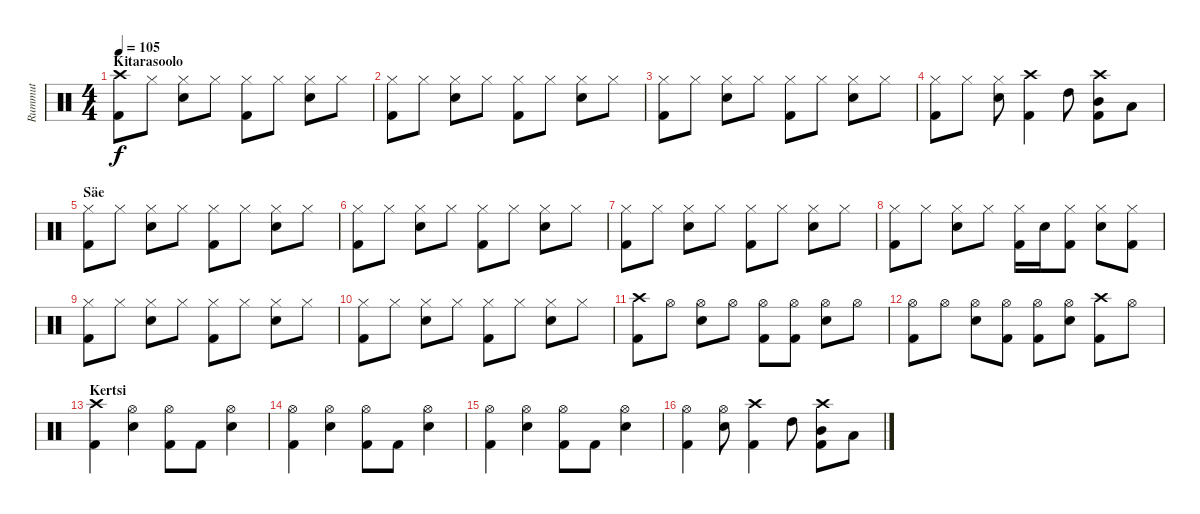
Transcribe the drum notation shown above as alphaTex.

\track ("Rummut" "Rummut") {instrument percussion}
\staff {score}
\articulation defaults
\ts (4 4)
\section ("" "Kitarasoolo")
\tempo 105
\clef neutral
\ks c
("Crash high (hit)" "Kick (hit) 2").8{dy f} "Hi-Hat (closed)".8 ("Hi-Hat (closed)" "Snare (hit) 2").8 "Hi-Hat (closed)".8 ("Hi-Hat (closed)" "Kick (hit) 2").8 "Hi-Hat (closed)".8 ("Hi-Hat (closed)" "Snare (hit) 2").8 "Hi-Hat (closed)".8 |
("Hi-Hat (closed)" "Kick (hit) 2").8 "Hi-Hat (closed)".8 ("Hi-Hat (closed)" "Snare (hit) 2").8 "Hi-Hat (closed)".8 ("Hi-Hat (closed)" "Kick (hit) 2").8 "Hi-Hat (closed)".8 ("Hi-Hat (closed)" "Snare (hit) 2").8 "Hi-Hat (closed)".8 |
("Hi-Hat (closed)" "Kick (hit) 2").8 "Hi-Hat (closed)".8 ("Hi-Hat (closed)" "Snare (hit) 2").8 "Hi-Hat (closed)".8 ("Hi-Hat (closed)" "Kick (hit) 2").8 "Hi-Hat (closed)".8 ("Hi-Hat (closed)" "Snare (hit) 2").8 "Hi-Hat (closed)".8 |
("Hi-Hat (closed)" "Kick (hit) 2").8 "Hi-Hat (closed)".8 ("Hi-Hat (closed)" "Snare (hit) 2").8 ("Crash high (hit)" "Kick (hit) 2").4 "High Tom (hit)".8 ("Crash high (hit)" "Mid Tom (hit)" "Kick (hit) 2").8 "Low Tom (hit)".8 |
\section ("" "Säe")
("Hi-Hat (closed)" "Kick (hit) 2").8 "Hi-Hat (closed)".8 ("Hi-Hat (closed)" "Snare (hit) 2").8 "Hi-Hat (closed)".8 ("Hi-Hat (closed)" "Kick (hit) 2").8 "Hi-Hat (closed)".8 ("Hi-Hat (closed)" "Snare (hit) 2").8 "Hi-Hat (closed)".8 |
("Hi-Hat (closed)" "Kick (hit) 2").8 "Hi-Hat (closed)".8 ("Hi-Hat (closed)" "Snare (hit) 2").8 "Hi-Hat (closed)".8 ("Hi-Hat (closed)" "Kick (hit) 2").8 "Hi-Hat (closed)".8 ("Hi-Hat (closed)" "Snare (hit) 2").8 "Hi-Hat (closed)".8 |
("Hi-Hat (closed)" "Kick (hit) 2").8 "Hi-Hat (closed)".8 ("Hi-Hat (closed)" "Snare (hit) 2").8 "Hi-Hat (closed)".8 ("Hi-Hat (closed)" "Kick (hit) 2").8 "Hi-Hat (closed)".8 ("Hi-Hat (closed)" "Snare (hit) 2").8 "Hi-Hat (closed)".8 |
("Hi-Hat (closed)" "Kick (hit) 2").8 "Hi-Hat (closed)".8 ("Hi-Hat (closed)" "Snare (hit) 2").8 "Hi-Hat (closed)".8 ("Hi-Hat (closed)" "Kick (hit) 2").16 "Snare (hit) 2".16 ("Hi-Hat (closed)" "Kick (hit) 2").8 ("Hi-Hat (closed)" "Snare (hit) 2").8 ("Hi-Hat (closed)" "Kick (hit) 2").8 |
("Hi-Hat (closed)" "Kick (hit) 2").8 "Hi-Hat (closed)".8 ("Hi-Hat (closed)" "Snare (hit) 2").8 "Hi-Hat (closed)".8 ("Hi-Hat (closed)" "Kick (hit) 2").8 "Hi-Hat (closed)".8 ("Hi-Hat (closed)" "Snare (hit) 2").8 "Hi-Hat (closed)".8 |
("Hi-Hat (closed)" "Kick (hit) 2").8 "Hi-Hat (closed)".8 ("Hi-Hat (closed)" "Snare (hit) 2").8 "Hi-Hat (closed)".8 ("Hi-Hat (closed)" "Kick (hit) 2").8 "Hi-Hat (closed)".8 ("Hi-Hat (closed)" "Snare (hit) 2").8 "Hi-Hat (closed)".8 |
("Crash high (hit)" "Kick (hit) 2").8 "Hi-Hat (open)".8 ("Hi-Hat (open)" "Snare (hit) 2").8 "Hi-Hat (open)".8 ("Hi-Hat (open)" "Kick (hit) 2").8 ("Hi-Hat (open)" "Kick (hit) 2").8 ("Hi-Hat (open)" "Snare (hit) 2").8 "Hi-Hat (open)".8 |
("Hi-Hat (open)" "Kick (hit) 2").8 "Hi-Hat (open)".8 ("Hi-Hat (open)" "Snare (hit) 2").8 ("Hi-Hat (open)" "Kick (hit) 2").8 ("Hi-Hat (open)" "Kick (hit) 2").8 ("Hi-Hat (open)" "Snare (hit) 2").8 ("Crash high (hit)" "Kick (hit) 2").8 "Hi-Hat (open)".8 |
\section ("" "Kertsi")
("Crash high (hit)" "Kick (hit) 2").4 ("Hi-Hat (open)" "Snare (hit) 2").4 ("Hi-Hat (open)" "Kick (hit) 2").8 "Kick (hit) 2".8 ("Hi-Hat (open)" "Snare (hit) 2").4 |
("Hi-Hat (open)" "Kick (hit) 2").4 ("Hi-Hat (open)" "Snare (hit) 2").4 ("Hi-Hat (open)" "Kick (hit) 2").8 "Kick (hit) 2".8 ("Hi-Hat (open)" "Snare (hit) 2").4 |
("Hi-Hat (open)" "Kick (hit) 2").4 ("Hi-Hat (open)" "Snare (hit) 2").4 ("Hi-Hat (open)" "Kick (hit) 2").8 "Kick (hit) 2".8 ("Hi-Hat (open)" "Snare (hit) 2").4 |
("Hi-Hat (open)" "Kick (hit) 2").4 ("Hi-Hat (open)" "Snare (hit) 2").8 ("Crash high (hit)" "Kick (hit) 2").4 "High Tom (hit)".8 ("Crash high (hit)" "Mid Tom (hit)" "Kick (hit) 2").8 "Low Tom (hit)".8
